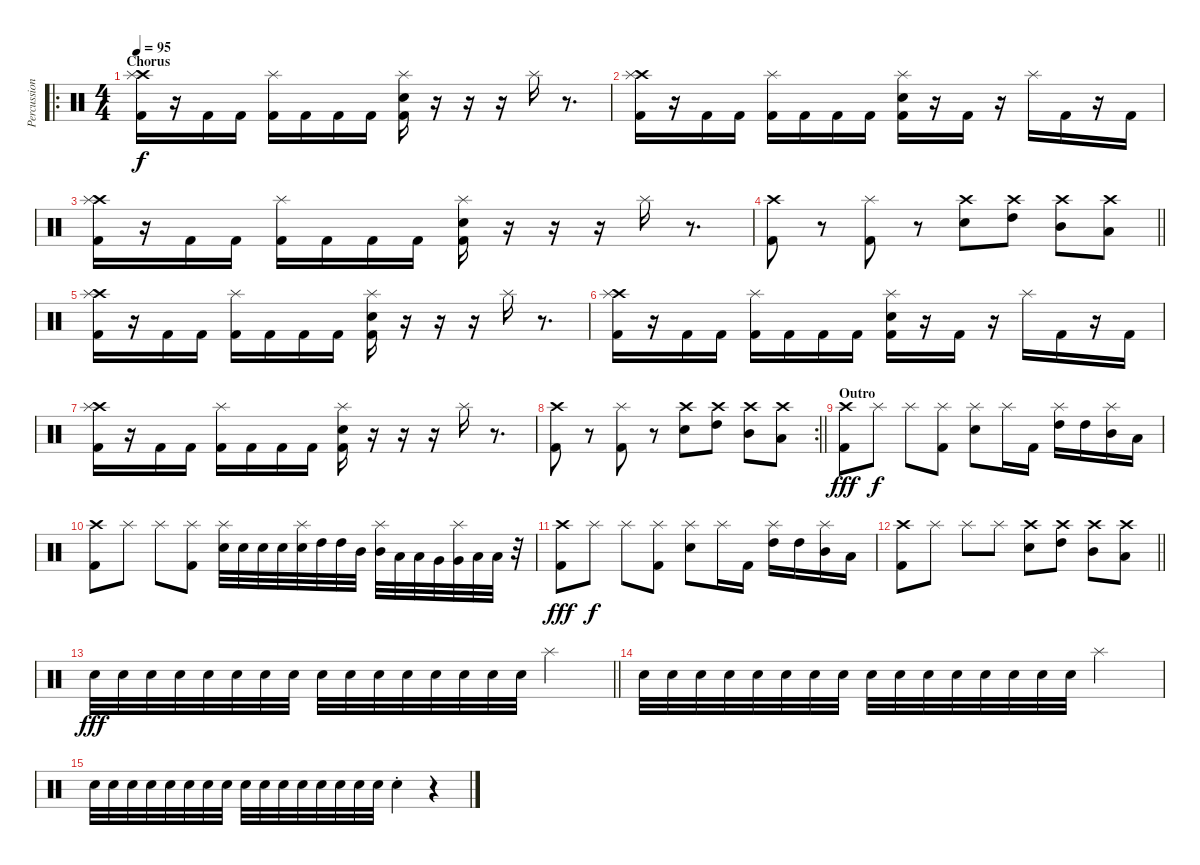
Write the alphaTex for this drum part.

\track ("Percussion" "Percussion") {instrument percussion}
\staff {score}
\articulation defaults
\ro
\ts (4 4)
\section ("" "Chorus")
\tempo 95
\clef neutral
\ks c
("Crash high (hit)" "Splash (hit)" "Kick (hit) 2").16{dy f} r.16 "Kick (hit) 2".16 "Kick (hit) 2".16 ("Splash (hit)" "Kick (hit) 2").16 "Kick (hit) 2".16 "Kick (hit) 2".16 "Kick (hit) 2".16 ("Splash (hit)" "Electric Snare (hit)" "Kick (hit) 2").16 r.16 r.16 r.16 "Splash (hit)".16 r.8{d} |
("Crash high (hit)" "Splash (hit)" "Kick (hit) 2").16 r.16 "Kick (hit) 2".16 "Kick (hit) 2".16 ("Splash (hit)" "Kick (hit) 2").16 "Kick (hit) 2".16 "Kick (hit) 2".16 "Kick (hit) 2".16 ("Splash (hit)" "Electric Snare (hit)" "Kick (hit) 2").16 r.16 "Kick (hit) 2".16 r.16 "Splash (hit)".16 "Kick (hit) 2".16 r.16 "Kick (hit) 2".16 |
("Crash high (hit)" "Splash (hit)" "Kick (hit) 2").16 r.16 "Kick (hit) 2".16 "Kick (hit) 2".16 ("Splash (hit)" "Kick (hit) 2").16 "Kick (hit) 2".16 "Kick (hit) 2".16 "Kick (hit) 2".16 ("Splash (hit)" "Electric Snare (hit)" "Kick (hit) 2").16 r.16 r.16 r.16 "Splash (hit)".16 r.8{d} |
\barLineRight lightlight
("Crash high (hit)" "Kick (hit) 2").8 r.8 ("Splash (hit)" "Kick (hit) 2").8 r.8 ("Crash high (hit)" "Electric Snare (hit)").8 ("Crash high (hit)" "High Tom (hit)").8 ("Crash high (hit)" "Mid Tom (hit)").8 ("Crash high (hit)" "Low Tom (hit)").8 |
("Crash high (hit)" "Splash (hit)" "Kick (hit) 2").16 r.16 "Kick (hit) 2".16 "Kick (hit) 2".16 ("Splash (hit)" "Kick (hit) 2").16 "Kick (hit) 2".16 "Kick (hit) 2".16 "Kick (hit) 2".16 ("Splash (hit)" "Electric Snare (hit)" "Kick (hit) 2").16 r.16 r.16 r.16 "Splash (hit)".16 r.8{d} |
("Crash high (hit)" "Splash (hit)" "Kick (hit) 2").16 r.16 "Kick (hit) 2".16 "Kick (hit) 2".16 ("Splash (hit)" "Kick (hit) 2").16 "Kick (hit) 2".16 "Kick (hit) 2".16 "Kick (hit) 2".16 ("Splash (hit)" "Electric Snare (hit)" "Kick (hit) 2").16 r.16 "Kick (hit) 2".16 r.16 "Splash (hit)".16 "Kick (hit) 2".16 r.16 "Kick (hit) 2".16 |
("Crash high (hit)" "Splash (hit)" "Kick (hit) 2").16 r.16 "Kick (hit) 2".16 "Kick (hit) 2".16 ("Splash (hit)" "Kick (hit) 2").16 "Kick (hit) 2".16 "Kick (hit) 2".16 "Kick (hit) 2".16 ("Splash (hit)" "Electric Snare (hit)" "Kick (hit) 2").16 r.16 r.16 r.16 "Splash (hit)".16 r.8{d} |
\rc 2
\barLineRight lightlight
("Crash high (hit)" "Kick (hit) 2").8 r.8 ("Splash (hit)" "Kick (hit) 2").8 r.8 ("Crash high (hit)" "Electric Snare (hit)").8 ("Crash high (hit)" "High Tom (hit)").8 ("Crash high (hit)" "Mid Tom (hit)").8 ("Crash high (hit)" "Low Tom (hit)").8 |
\section ("" "Outro")
("Crash high (hit)" "Kick (hit) 2").8{dy fff} "Splash (hit)".8{dy f} "Splash (hit)".8 ("Splash (hit)" "Kick (hit) 2").8 ("Splash (hit)" "Electric Snare (hit)").8 "Splash (hit)".16 "Kick (hit) 2".16 ("Splash (hit)" "High Tom (hit)").16 "High Tom (hit)".16 ("Splash (hit)" "Mid Tom (hit)").16 "Low Tom (hit)".16 |
("Crash high (hit)" "Kick (hit) 2").8 "Splash (hit)".8 "Splash (hit)".8 ("Splash (hit)" "Kick (hit) 2").8 ("Splash (hit)" "Electric Snare (hit)").32 "Electric Snare (hit)".32 "Electric Snare (hit)".32 "Electric Snare (hit)".32 ("Splash (hit)" "Electric Snare (hit)").32 "High Tom (hit)".32 "High Tom (hit)".32 "Mid Tom (hit)".32 ("Splash (hit)" "Mid Tom (hit)").32 "Low Tom (hit)".32 "Low Tom (hit)".32 "Very Low Tom (hit)".32 ("Splash (hit)" "Very Low Tom (hit)").32 "Low Floor Tom (hit)".32 "Low Floor Tom (hit)".32 r.32 |
("Crash high (hit)" "Kick (hit) 2").8{dy fff} "Splash (hit)".8{dy f} "Splash (hit)".8 ("Splash (hit)" "Kick (hit) 2").8 ("Splash (hit)" "Electric Snare (hit)").8 "Splash (hit)".16 "Kick (hit) 2".16 ("Splash (hit)" "High Tom (hit)").16 "High Tom (hit)".16 ("Splash (hit)" "Mid Tom (hit)").16 "Low Tom (hit)".16 |
\barLineRight lightlight
("Crash high (hit)" "Kick (hit) 2").8 "Splash (hit)".8 "Splash (hit)".8 "Splash (hit)".8 ("Crash high (hit)" "Electric Snare (hit)").8 ("Crash high (hit)" "High Tom (hit)").8 ("Crash high (hit)" "Mid Tom (hit)").8 ("Crash high (hit)" "Low Tom (hit)").8 |
\barLineRight lightlight "Snare (hit) 2".32{dy fff} "Snare (hit) 2".32 "Snare (hit) 2".32 "Snare (hit) 2".32 "Snare (hit) 2".32 "Snare (hit) 2".32 "Snare (hit) 2".32 "Snare (hit) 2".32 "Snare (hit) 2".32 "Snare (hit) 2".32 "Snare (hit) 2".32 "Snare (hit) 2".32 "Snare (hit) 2".32 "Snare (hit) 2".32 "Snare (hit) 2".32 "Snare (hit) 2".32 "Splash (hit)".2
|
"Snare (hit) 2".32 "Snare (hit) 2".32 "Snare (hit) 2".32 "Snare (hit) 2".32 "Snare (hit) 2".32 "Snare (hit) 2".32 "Snare (hit) 2".32 "Snare (hit) 2".32 "Snare (hit) 2".32 "Snare (hit) 2".32 "Snare (hit) 2".32 "Snare (hit) 2".32 "Snare (hit) 2".32 "Snare (hit) 2".32 "Snare (hit) 2".32 "Snare (hit) 2".32 "Splash (hit)".2 |
"Snare (hit) 2".32 "Snare (hit) 2".32 "Snare (hit) 2".32 "Snare (hit) 2".32 "Snare (hit) 2".32 "Snare (hit) 2".32 "Snare (hit) 2".32 "Snare (hit) 2".32 "Snare (hit) 2".32 "Snare (hit) 2".32 "Snare (hit) 2".32 "Snare (hit) 2".32 "Snare (hit) 2".32 "Snare (hit) 2".32 "Snare (hit) 2".32 "Snare (hit) 2".32 "Snare (hit) 2"{st}.4 r.4
